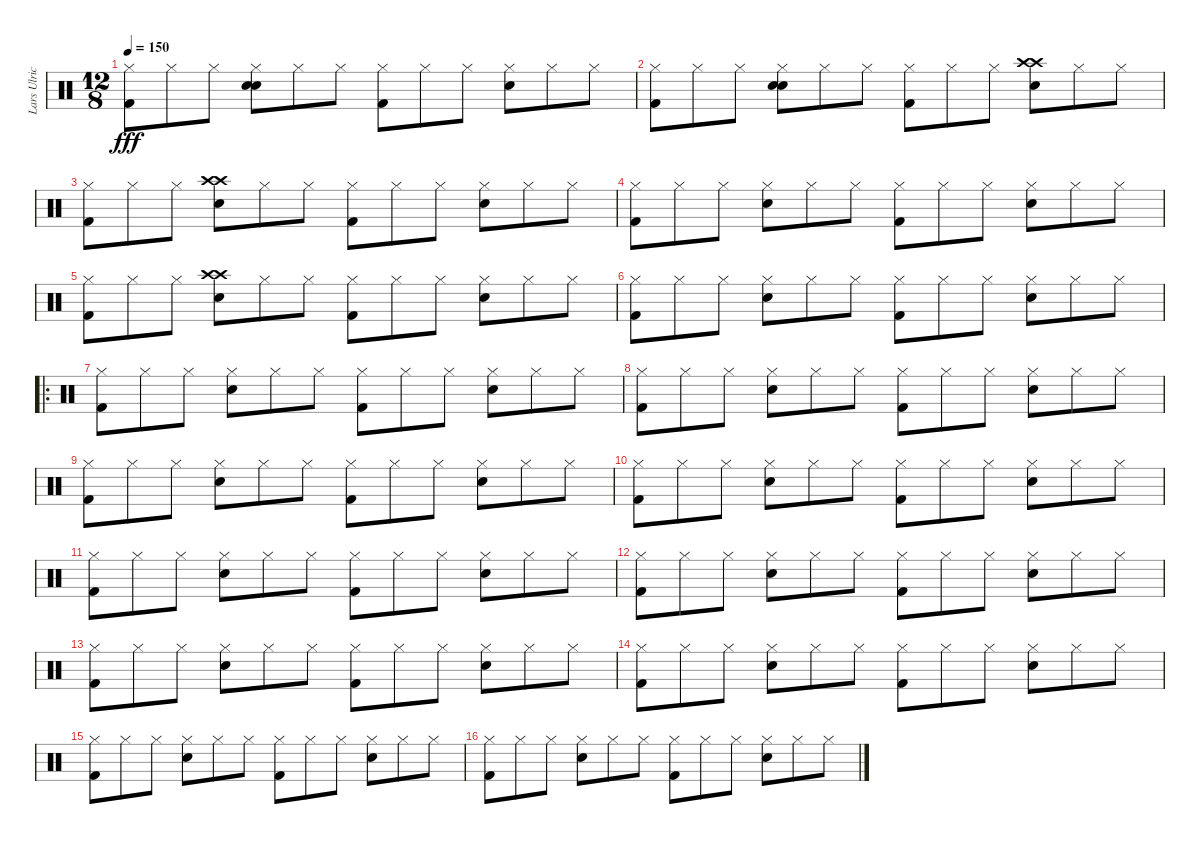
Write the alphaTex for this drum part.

\track ("Lars Ulrich (Drums)" "Lars Ulric") {instrument percussion}
\staff {score}
\articulation defaults
\ts (12 8)
\tempo 150
\clef neutral
\ks c
("Hi-Hat (closed)" "Kick (hit) 2").8{dy fff} "Hi-Hat (closed)".8 "Hi-Hat (closed)".8 ("Hi-Hat (closed)" "Electric Snare (hit)" "Electric Snare (hit)").8 "Hi-Hat (closed)".8 "Hi-Hat (closed)".8 ("Hi-Hat (closed)" "Kick (hit) 2").8 "Hi-Hat (closed)".8 "Hi-Hat (closed)".8 ("Hi-Hat (closed)" "Electric Snare (hit)").8 "Hi-Hat (closed)".8 "Hi-Hat (closed)".8 |
("Hi-Hat (closed)" "Kick (hit) 2").8 "Hi-Hat (closed)".8 "Hi-Hat (closed)".8 ("Hi-Hat (closed)" "Electric Snare (hit)" "Electric Snare (hit)").8 "Hi-Hat (closed)".8 "Hi-Hat (closed)".8 ("Hi-Hat (closed)" "Kick (hit) 2").8 "Hi-Hat (closed)".8 "Hi-Hat (closed)".8 ("Crash high (hit)" "Crash high (hit)" "Electric Snare (hit)").8 "Hi-Hat (closed)".8 "Hi-Hat (closed)".8 |
("Hi-Hat (closed)" "Kick (hit) 2").8 "Hi-Hat (closed)".8 "Hi-Hat (closed)".8 ("Crash high (hit)" "Crash high (hit)" "Electric Snare (hit)").8 "Hi-Hat (closed)".8 "Hi-Hat (closed)".8 ("Hi-Hat (closed)" "Kick (hit) 2").8 "Hi-Hat (closed)".8 "Hi-Hat (closed)".8 ("Hi-Hat (closed)" "Electric Snare (hit)").8 "Hi-Hat (closed)".8 "Hi-Hat (closed)".8 |
("Hi-Hat (closed)" "Kick (hit) 2").8 "Hi-Hat (closed)".8 "Hi-Hat (closed)".8 ("Hi-Hat (closed)" "Electric Snare (hit)").8 "Hi-Hat (closed)".8 "Hi-Hat (closed)".8 ("Hi-Hat (closed)" "Kick (hit) 2").8 "Hi-Hat (closed)".8 "Hi-Hat (closed)".8 ("Hi-Hat (closed)" "Electric Snare (hit)").8 "Hi-Hat (closed)".8 "Hi-Hat (closed)".8 |
("Hi-Hat (closed)" "Kick (hit) 2").8 "Hi-Hat (closed)".8 "Hi-Hat (closed)".8 ("Crash high (hit)" "Crash high (hit)" "Electric Snare (hit)").8 "Hi-Hat (closed)".8 "Hi-Hat (closed)".8 ("Hi-Hat (closed)" "Kick (hit) 2").8 "Hi-Hat (closed)".8 "Hi-Hat (closed)".8 ("Hi-Hat (closed)" "Electric Snare (hit)").8 "Hi-Hat (closed)".8 "Hi-Hat (closed)".8 |
("Hi-Hat (closed)" "Kick (hit) 2").8 "Hi-Hat (closed)".8 "Hi-Hat (closed)".8 ("Hi-Hat (closed)" "Electric Snare (hit)").8 "Hi-Hat (closed)".8 "Hi-Hat (closed)".8 ("Hi-Hat (closed)" "Kick (hit) 2").8 "Hi-Hat (closed)".8 "Hi-Hat (closed)".8 ("Hi-Hat (closed)" "Electric Snare (hit)").8 "Hi-Hat (closed)".8 "Hi-Hat (closed)".8 |
\ro
("Hi-Hat (closed)" "Kick (hit) 2").8 "Hi-Hat (closed)".8 "Hi-Hat (closed)".8 ("Hi-Hat (closed)" "Electric Snare (hit)").8 "Hi-Hat (closed)".8 "Hi-Hat (closed)".8 ("Hi-Hat (closed)" "Kick (hit) 2").8 "Hi-Hat (closed)".8 "Hi-Hat (closed)".8 ("Hi-Hat (closed)" "Electric Snare (hit)").8 "Hi-Hat (closed)".8 "Hi-Hat (closed)".8 |
("Hi-Hat (closed)" "Kick (hit) 2").8 "Hi-Hat (closed)".8 "Hi-Hat (closed)".8 ("Hi-Hat (closed)" "Electric Snare (hit)").8 "Hi-Hat (closed)".8 "Hi-Hat (closed)".8 ("Hi-Hat (closed)" "Kick (hit) 2").8 "Hi-Hat (closed)".8 "Hi-Hat (closed)".8 ("Hi-Hat (closed)" "Electric Snare (hit)").8 "Hi-Hat (closed)".8 "Hi-Hat (closed)".8 |
("Hi-Hat (closed)" "Kick (hit) 2").8 "Hi-Hat (closed)".8 "Hi-Hat (closed)".8 ("Hi-Hat (closed)" "Electric Snare (hit)").8 "Hi-Hat (closed)".8 "Hi-Hat (closed)".8 ("Hi-Hat (closed)" "Kick (hit) 2").8 "Hi-Hat (closed)".8 "Hi-Hat (closed)".8 ("Hi-Hat (closed)" "Electric Snare (hit)").8 "Hi-Hat (closed)".8 "Hi-Hat (closed)".8 |
("Hi-Hat (closed)" "Kick (hit) 2").8 "Hi-Hat (closed)".8 "Hi-Hat (closed)".8 ("Hi-Hat (closed)" "Electric Snare (hit)").8 "Hi-Hat (closed)".8 "Hi-Hat (closed)".8 ("Hi-Hat (closed)" "Kick (hit) 2").8 "Hi-Hat (closed)".8 "Hi-Hat (closed)".8 ("Hi-Hat (closed)" "Electric Snare (hit)").8 "Hi-Hat (closed)".8 "Hi-Hat (closed)".8 |
("Hi-Hat (closed)" "Kick (hit) 2").8 "Hi-Hat (closed)".8 "Hi-Hat (closed)".8 ("Hi-Hat (closed)" "Electric Snare (hit)").8 "Hi-Hat (closed)".8 "Hi-Hat (closed)".8 ("Hi-Hat (closed)" "Kick (hit) 2").8 "Hi-Hat (closed)".8 "Hi-Hat (closed)".8 ("Hi-Hat (closed)" "Electric Snare (hit)").8 "Hi-Hat (closed)".8 "Hi-Hat (closed)".8 |
("Hi-Hat (closed)" "Kick (hit) 2").8 "Hi-Hat (closed)".8 "Hi-Hat (closed)".8 ("Hi-Hat (closed)" "Electric Snare (hit)").8 "Hi-Hat (closed)".8 "Hi-Hat (closed)".8 ("Hi-Hat (closed)" "Kick (hit) 2").8 "Hi-Hat (closed)".8 "Hi-Hat (closed)".8 ("Hi-Hat (closed)" "Electric Snare (hit)").8 "Hi-Hat (closed)".8 "Hi-Hat (closed)".8 |
("Hi-Hat (closed)" "Kick (hit) 2").8 "Hi-Hat (closed)".8 "Hi-Hat (closed)".8 ("Hi-Hat (closed)" "Electric Snare (hit)").8 "Hi-Hat (closed)".8 "Hi-Hat (closed)".8 ("Hi-Hat (closed)" "Kick (hit) 2").8 "Hi-Hat (closed)".8 "Hi-Hat (closed)".8 ("Hi-Hat (closed)" "Electric Snare (hit)").8 "Hi-Hat (closed)".8 "Hi-Hat (closed)".8 |
("Hi-Hat (closed)" "Kick (hit) 2").8 "Hi-Hat (closed)".8 "Hi-Hat (closed)".8 ("Hi-Hat (closed)" "Electric Snare (hit)").8 "Hi-Hat (closed)".8 "Hi-Hat (closed)".8 ("Hi-Hat (closed)" "Kick (hit) 2").8 "Hi-Hat (closed)".8 "Hi-Hat (closed)".8 ("Hi-Hat (closed)" "Electric Snare (hit)").8 "Hi-Hat (closed)".8 "Hi-Hat (closed)".8 |
("Hi-Hat (closed)" "Kick (hit) 2").8 "Hi-Hat (closed)".8 "Hi-Hat (closed)".8 ("Hi-Hat (closed)" "Electric Snare (hit)").8 "Hi-Hat (closed)".8 "Hi-Hat (closed)".8 ("Hi-Hat (closed)" "Kick (hit) 2").8 "Hi-Hat (closed)".8 "Hi-Hat (closed)".8 ("Hi-Hat (closed)" "Electric Snare (hit)").8 "Hi-Hat (closed)".8 "Hi-Hat (closed)".8 |
("Hi-Hat (closed)" "Kick (hit) 2").8 "Hi-Hat (closed)".8 "Hi-Hat (closed)".8 ("Hi-Hat (closed)" "Electric Snare (hit)").8 "Hi-Hat (closed)".8 "Hi-Hat (closed)".8 ("Hi-Hat (closed)" "Kick (hit) 2").8 "Hi-Hat (closed)".8 "Hi-Hat (closed)".8 ("Hi-Hat (closed)" "Electric Snare (hit)").8 "Hi-Hat (closed)".8 "Hi-Hat (closed)".8
